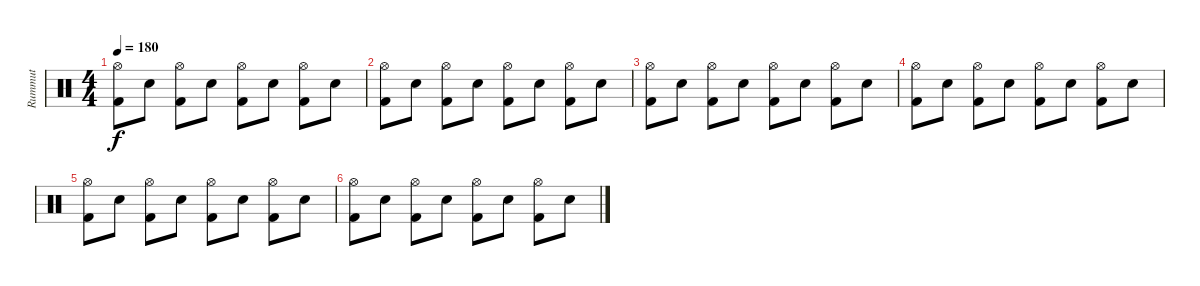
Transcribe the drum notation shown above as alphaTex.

\track ("Rummut" "Rummut") {instrument percussion}
\staff {score}
\articulation defaults
\ts (4 4)
\tempo 180
\clef neutral
\ks c
("Hi-Hat (open)" "Kick (hit) 2").8{dy f} "Electric Snare (hit)".8 ("Hi-Hat (open)" "Kick (hit) 2").8 "Electric Snare (hit)".8 ("Hi-Hat (open)" "Kick (hit) 2").8 "Electric Snare (hit)".8 ("Hi-Hat (open)" "Kick (hit) 2").8 "Electric Snare (hit)".8 |
("Hi-Hat (open)" "Kick (hit) 2").8 "Electric Snare (hit)".8 ("Hi-Hat (open)" "Kick (hit) 2").8 "Electric Snare (hit)".8 ("Hi-Hat (open)" "Kick (hit) 2").8 "Electric Snare (hit)".8 ("Hi-Hat (open)" "Kick (hit) 2").8 "Electric Snare (hit)".8 |
("Hi-Hat (open)" "Kick (hit) 2").8 "Electric Snare (hit)".8 ("Hi-Hat (open)" "Kick (hit) 2").8 "Electric Snare (hit)".8 ("Hi-Hat (open)" "Kick (hit) 2").8 "Electric Snare (hit)".8 ("Hi-Hat (open)" "Kick (hit) 2").8 "Electric Snare (hit)".8 |
("Hi-Hat (open)" "Kick (hit) 2").8 "Electric Snare (hit)".8 ("Hi-Hat (open)" "Kick (hit) 2").8 "Electric Snare (hit)".8 ("Hi-Hat (open)" "Kick (hit) 2").8 "Electric Snare (hit)".8 ("Hi-Hat (open)" "Kick (hit) 2").8 "Electric Snare (hit)".8 |
("Hi-Hat (open)" "Kick (hit) 2").8 "Electric Snare (hit)".8 ("Hi-Hat (open)" "Kick (hit) 2").8 "Electric Snare (hit)".8 ("Hi-Hat (open)" "Kick (hit) 2").8 "Electric Snare (hit)".8 ("Hi-Hat (open)" "Kick (hit) 2").8 "Electric Snare (hit)".8 |
("Hi-Hat (open)" "Kick (hit) 2").8 "Electric Snare (hit)".8 ("Hi-Hat (open)" "Kick (hit) 2").8 "Electric Snare (hit)".8 ("Hi-Hat (open)" "Kick (hit) 2").8 "Electric Snare (hit)".8 ("Hi-Hat (open)" "Kick (hit) 2").8 "Electric Snare (hit)".8
